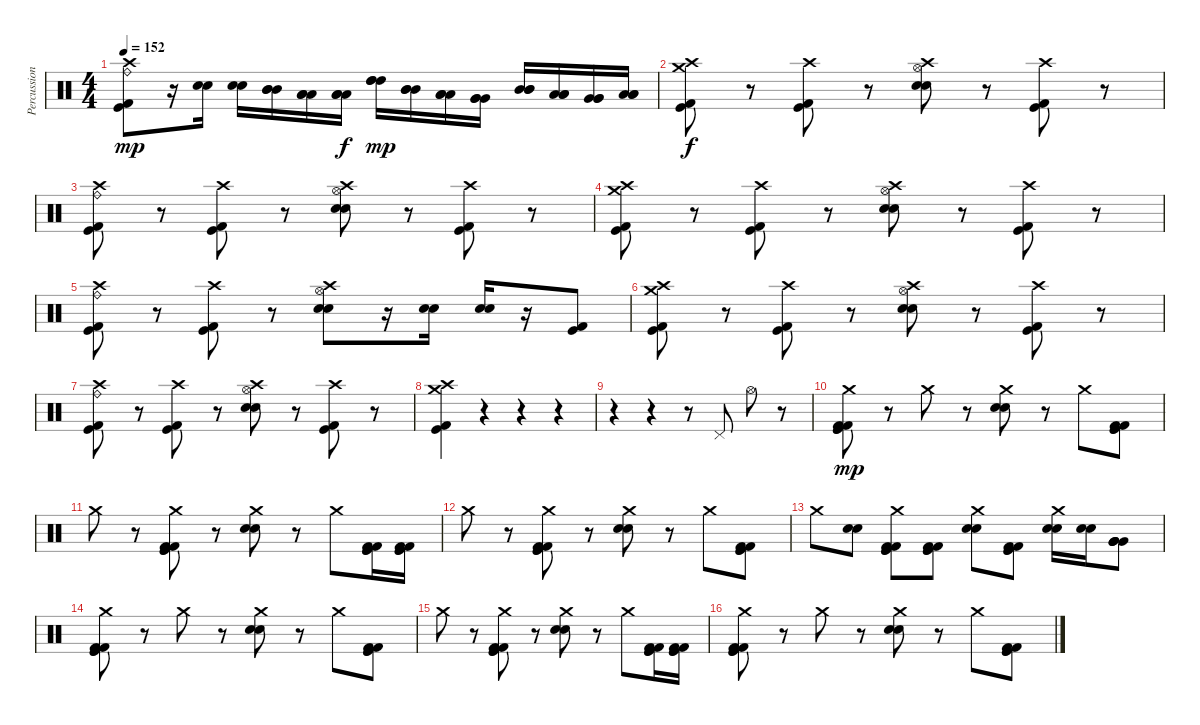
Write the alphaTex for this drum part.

\track ("Percussion" "Percussion") {instrument percussion}
\staff {score}
\articulation defaults
\ts (4 4)
\tempo 152
\clef neutral
\ks c
("Crash high (hit)" "Ride (bell)" "Kick (hit) 2" "Kick (hit)").8{dy mp} r.16 ("Electric Snare (hit)" "Snare (hit) 2").16 ("Electric Snare (hit)" "Snare (hit) 2").16 ("Mid Tom (hit)" "Mid Tom (hit)" "Mid Tom (hit)").16 ("Low Tom (hit)" "Low Tom (hit)" "Low Tom (hit)").16 ("Low Tom (hit)" "Low Tom (hit)" "Low Tom (hit)").16{dy f} ("High Tom (hit)" "High Tom (hit)" "High Tom (hit)").16{dy mp} ("Mid Tom (hit)" "Mid Tom (hit)" "Mid Tom (hit)").16 ("Low Tom (hit)" "Low Tom (hit)" "Low Tom (hit)").16 ("Very Low Tom (hit)" "Very Low Tom (hit)" "Very Low Tom (hit)").16 ("Mid Tom (hit)" "Mid Tom (hit)" "Mid Tom (hit)").16 ("Low Tom (hit)" "Low Tom (hit)" "Low Tom (hit)").16 ("Very Low Tom (hit)" "Very Low Tom (hit)" "Very Low Tom (hit)").16 ("Low Floor Tom (hit)" "Low Floor Tom (hit)" "Low Floor Tom (hit)").16 |
("Crash high (hit)" "Crash medium (hit)" "Kick (hit) 2" "Kick (hit)").8{dy f} r.8 ("Crash high (hit)" "Kick (hit) 2" "Kick (hit)").8 r.8 ("Crash high (hit)" "Hi-Hat (open)" "Electric Snare (hit)" "Snare (hit) 2").8 r.8 ("Crash high (hit)" "Kick (hit) 2" "Kick (hit)").8 r.8 |
("Crash high (hit)" "Ride (bell)" "Kick (hit) 2" "Kick (hit)").8 r.8 ("Crash high (hit)" "Kick (hit) 2" "Kick (hit)").8 r.8 ("Crash high (hit)" "Hi-Hat (open)" "Electric Snare (hit)" "Snare (hit) 2").8 r.8 ("Crash high (hit)" "Kick (hit) 2" "Kick (hit)").8 r.8 |
("Crash high (hit)" "Crash medium (hit)" "Kick (hit) 2" "Kick (hit)").8 r.8 ("Crash high (hit)" "Kick (hit) 2" "Kick (hit)").8 r.8 ("Crash high (hit)" "Hi-Hat (open)" "Electric Snare (hit)" "Snare (hit) 2").8 r.8 ("Crash high (hit)" "Kick (hit) 2" "Kick (hit)").8 r.8 |
("Crash high (hit)" "Ride (bell)" "Kick (hit) 2" "Kick (hit)").8 r.8 ("Crash high (hit)" "Kick (hit) 2" "Kick (hit)").8 r.8 ("Crash high (hit)" "Hi-Hat (open)" "Electric Snare (hit)" "Snare (hit) 2").8 r.16 ("Electric Snare (hit)" "Snare (hit) 2").16 ("Electric Snare (hit)" "Snare (hit) 2").16 r.16 ("Kick (hit) 2" "Kick (hit)").8 |
("Crash high (hit)" "Crash medium (hit)" "Kick (hit) 2" "Kick (hit)").8 r.8 ("Crash high (hit)" "Kick (hit) 2" "Kick (hit)").8 r.8 ("Crash high (hit)" "Hi-Hat (open)" "Electric Snare (hit)" "Snare (hit) 2").8 r.8 ("Crash high (hit)" "Kick (hit) 2" "Kick (hit)").8 r.8 |
("Crash high (hit)" "Ride (bell)" "Kick (hit) 2" "Kick (hit)").8 r.8 ("Crash high (hit)" "Kick (hit) 2" "Kick (hit)").8 r.8 ("Crash high (hit)" "Hi-Hat (open)" "Electric Snare (hit)" "Snare (hit) 2").8 r.8 ("Crash high (hit)" "Kick (hit) 2" "Kick (hit)").8 r.8 |
("Crash high (hit)" "Crash medium (hit)" "Kick (hit) 2" "Kick (hit)").4 r.4 r.4 r.4 |
r.4 r.4 r.8 "Pedal Hi-Hat (hit)".8 "Hi-Hat (open)".8 r.8 |
("Crash medium (hit)" "Kick (hit) 2" "Kick (hit)" "Kick (hit) 2" "Kick (hit)").8{dy mp} r.8 "Crash medium (hit)".8 r.8 ("Crash medium (hit)" "Electric Snare (hit)" "Snare (hit) 2").8 r.8 "Crash medium (hit)".8 ("Kick (hit) 2" "Kick (hit)" "Kick (hit) 2" "Kick (hit)").8 |
"Crash medium (hit)".8 r.8 ("Crash medium (hit)" "Kick (hit) 2" "Kick (hit)" "Kick (hit) 2" "Kick (hit)").8 r.8 ("Crash medium (hit)" "Electric Snare (hit)" "Snare (hit) 2").8 r.8 "Crash medium (hit)".8 ("Kick (hit) 2" "Kick (hit)" "Kick (hit) 2" "Kick (hit)").16 ("Kick (hit) 2" "Kick (hit)" "Kick (hit) 2" "Kick (hit)").16 |
"Crash medium (hit)".8 r.8 ("Crash medium (hit)" "Kick (hit) 2" "Kick (hit)" "Kick (hit) 2" "Kick (hit)").8 r.8 ("Crash medium (hit)" "Electric Snare (hit)" "Snare (hit) 2").8 r.8 "Crash medium (hit)".8 ("Kick (hit) 2" "Kick (hit)" "Kick (hit) 2" "Kick (hit)").8 |
"Crash medium (hit)".8 ("Electric Snare (hit)" "Snare (hit) 2").8 ("Crash medium (hit)" "Kick (hit) 2" "Kick (hit)" "Kick (hit) 2" "Kick (hit)").8 ("Kick (hit) 2" "Kick (hit)" "Kick (hit) 2" "Kick (hit)").8 ("Crash medium (hit)" "Electric Snare (hit)" "Snare (hit) 2").8 ("Kick (hit) 2" "Kick (hit)" "Kick (hit) 2" "Kick (hit)").8 ("Crash medium (hit)" "Electric Snare (hit)" "Snare (hit) 2").16 ("Electric Snare (hit)" "Snare (hit) 2").16 ("Very Low Tom (hit)" "Very Low Tom (hit)" "Very Low Tom (hit)" "Very Low Tom (hit)").8 |
("Crash medium (hit)" "Kick (hit) 2" "Kick (hit)" "Kick (hit) 2" "Kick (hit)").8 r.8 "Crash medium (hit)".8 r.8 ("Crash medium (hit)" "Electric Snare (hit)" "Snare (hit) 2").8 r.8 "Crash medium (hit)".8 ("Kick (hit) 2" "Kick (hit)" "Kick (hit) 2" "Kick (hit)").8 |
"Crash medium (hit)".8 r.8 ("Crash medium (hit)" "Kick (hit) 2" "Kick (hit)" "Kick (hit) 2" "Kick (hit)").8 r.8 ("Crash medium (hit)" "Electric Snare (hit)" "Snare (hit) 2").8 r.8 "Crash medium (hit)".8 ("Kick (hit) 2" "Kick (hit)" "Kick (hit) 2" "Kick (hit)").16 ("Kick (hit) 2" "Kick (hit)" "Kick (hit) 2" "Kick (hit)").16 |
("Crash medium (hit)" "Kick (hit) 2" "Kick (hit)" "Kick (hit) 2" "Kick (hit)").8 r.8 "Crash medium (hit)".8 r.8 ("Crash medium (hit)" "Electric Snare (hit)" "Snare (hit) 2").8 r.8 "Crash medium (hit)".8 ("Kick (hit) 2" "Kick (hit)" "Kick (hit) 2" "Kick (hit)").8
